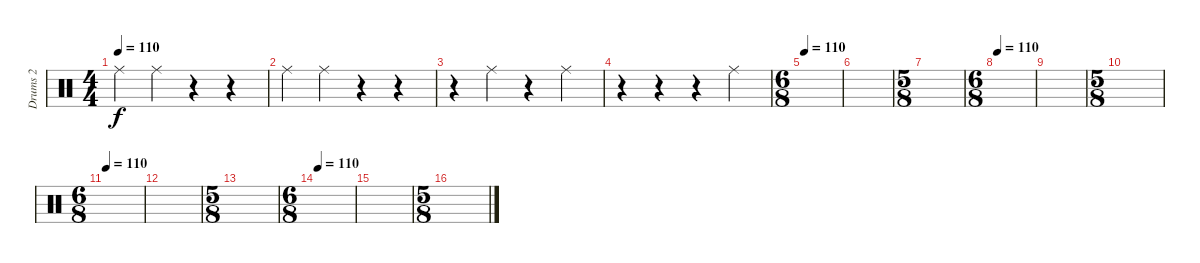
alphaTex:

\track ("Drums 2" "Drums 2") {instrument percussion}
\staff {score}
\articulation defaults
\ts (4 4)
\tempo 110
\clef neutral
\ks c "Ride (middle)".4{dy f} "Ride (middle)".4
r.4 r.4 |
"Ride (middle)".4 "Ride (middle)".4 r.4 r.4 |
r.4 "Ride (middle)".4 r.4 "Ride (middle)".4 |
r.4 r.4 r.4 "Ride (middle)".4 |
\ts (6 8)
\tempo 110
|
|
\ts (5 8)
|
\ts (6 8)
\tempo 110
|
|
\ts (5 8)
|
\ts (6 8)
\tempo 110
|
|
\ts (5 8)
|
\ts (6 8)
\tempo 110
|
|
\ts (5 8)
